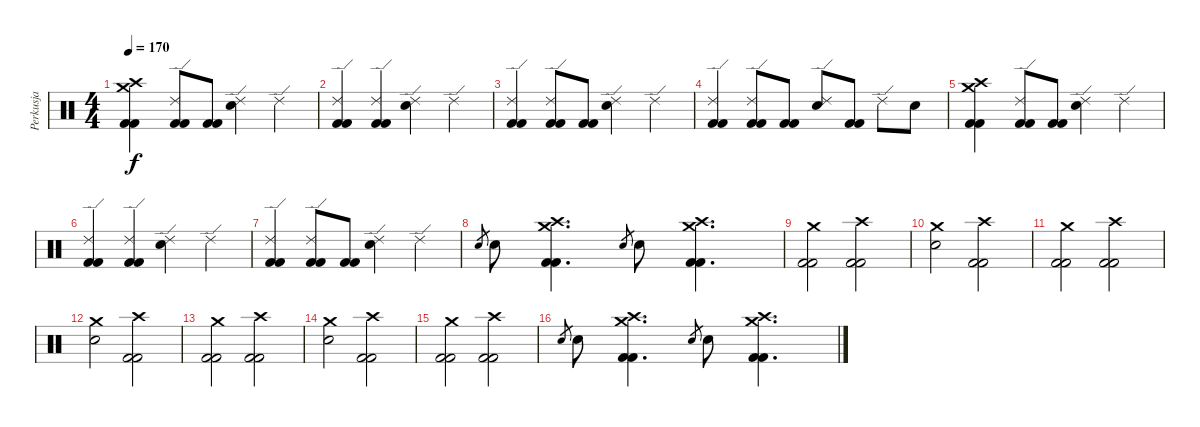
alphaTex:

\track ("Perkusja" "Perkusja") {instrument percussion}
\staff {score}
\articulation defaults
\ts (4 4)
\tempo 170
\clef neutral
\ks c
("Crash high (hit)" "Crash medium (hit)" "Kick (hit) 2" "Kick (hit) 2").4{dy f} ("Ride (edge) 2" "Kick (hit) 2" "Kick (hit) 2").8 ("Kick (hit) 2" "Kick (hit) 2").8 ("Ride (edge) 2" "Electric Snare (hit)").4 "Ride (edge) 2".4 |
("Ride (edge) 2" "Kick (hit) 2" "Kick (hit) 2").4 ("Ride (edge) 2" "Kick (hit) 2" "Kick (hit) 2").4 ("Ride (edge) 2" "Electric Snare (hit)").4 "Ride (edge) 2".4 |
("Ride (edge) 2" "Kick (hit) 2" "Kick (hit) 2").4 ("Ride (edge) 2" "Kick (hit) 2" "Kick (hit) 2").8 ("Kick (hit) 2" "Kick (hit) 2").8 ("Ride (edge) 2" "Electric Snare (hit)").4 "Ride (edge) 2".4 |
("Ride (edge) 2" "Kick (hit) 2" "Kick (hit) 2").4 ("Ride (edge) 2" "Kick (hit) 2" "Kick (hit) 2").8 ("Kick (hit) 2" "Kick (hit) 2").8 ("Ride (edge) 2" "Electric Snare (hit)").8 ("Kick (hit) 2" "Kick (hit) 2").8 "Ride (edge) 2".8 "Electric Snare (hit)".8 |
("Crash high (hit)" "Crash medium (hit)" "Kick (hit) 2" "Kick (hit) 2").4 ("Ride (edge) 2" "Kick (hit) 2" "Kick (hit) 2").8 ("Kick (hit) 2" "Kick (hit) 2").8 ("Ride (edge) 2" "Electric Snare (hit)").4 "Ride (edge) 2".4 |
("Ride (edge) 2" "Kick (hit) 2" "Kick (hit) 2").4 ("Ride (edge) 2" "Kick (hit) 2" "Kick (hit) 2").4 ("Ride (edge) 2" "Electric Snare (hit)").4 "Ride (edge) 2".4 |
("Ride (edge) 2" "Kick (hit) 2" "Kick (hit) 2").4 ("Ride (edge) 2" "Kick (hit) 2" "Kick (hit) 2").8 ("Kick (hit) 2" "Kick (hit) 2").8 ("Ride (edge) 2" "Electric Snare (hit)").4 "Ride (edge) 2".4 |
"Electric Snare (hit)".8{gr} "Electric Snare (hit)".8 ("Crash medium (hit)" "Crash high (hit)" "Kick (hit) 2" "Kick (hit) 2").4{d} "Electric Snare (hit)".8{gr} "Electric Snare (hit)".8 ("Crash medium (hit)" "Crash high (hit)" "Kick (hit) 2" "Kick (hit) 2").4{d} |
("Crash medium (hit)" "Kick (hit) 2" "Kick (hit) 2").2 ("Crash high (hit)" "Kick (hit) 2" "Kick (hit) 2").2 |
("Crash medium (hit)" "Electric Snare (hit)").2 ("Crash high (hit)" "Kick (hit) 2" "Kick (hit) 2").2 |
("Crash medium (hit)" "Kick (hit) 2" "Kick (hit) 2").2 ("Crash high (hit)" "Kick (hit) 2" "Kick (hit) 2").2 |
("Crash medium (hit)" "Electric Snare (hit)").2 ("Crash high (hit)" "Kick (hit) 2" "Kick (hit) 2").2 |
("Crash medium (hit)" "Kick (hit) 2" "Kick (hit) 2").2 ("Crash high (hit)" "Kick (hit) 2" "Kick (hit) 2").2 |
("Crash medium (hit)" "Electric Snare (hit)").2 ("Crash high (hit)" "Kick (hit) 2" "Kick (hit) 2").2 |
("Crash medium (hit)" "Kick (hit) 2" "Kick (hit) 2").2 ("Crash high (hit)" "Kick (hit) 2" "Kick (hit) 2").2 |
"Electric Snare (hit)".8{gr} "Electric Snare (hit)".8 ("Crash medium (hit)" "Crash high (hit)" "Kick (hit) 2" "Kick (hit) 2").4{d} "Electric Snare (hit)".8{gr} "Electric Snare (hit)".8 ("Crash medium (hit)" "Crash high (hit)" "Kick (hit) 2" "Kick (hit) 2").4{d}
